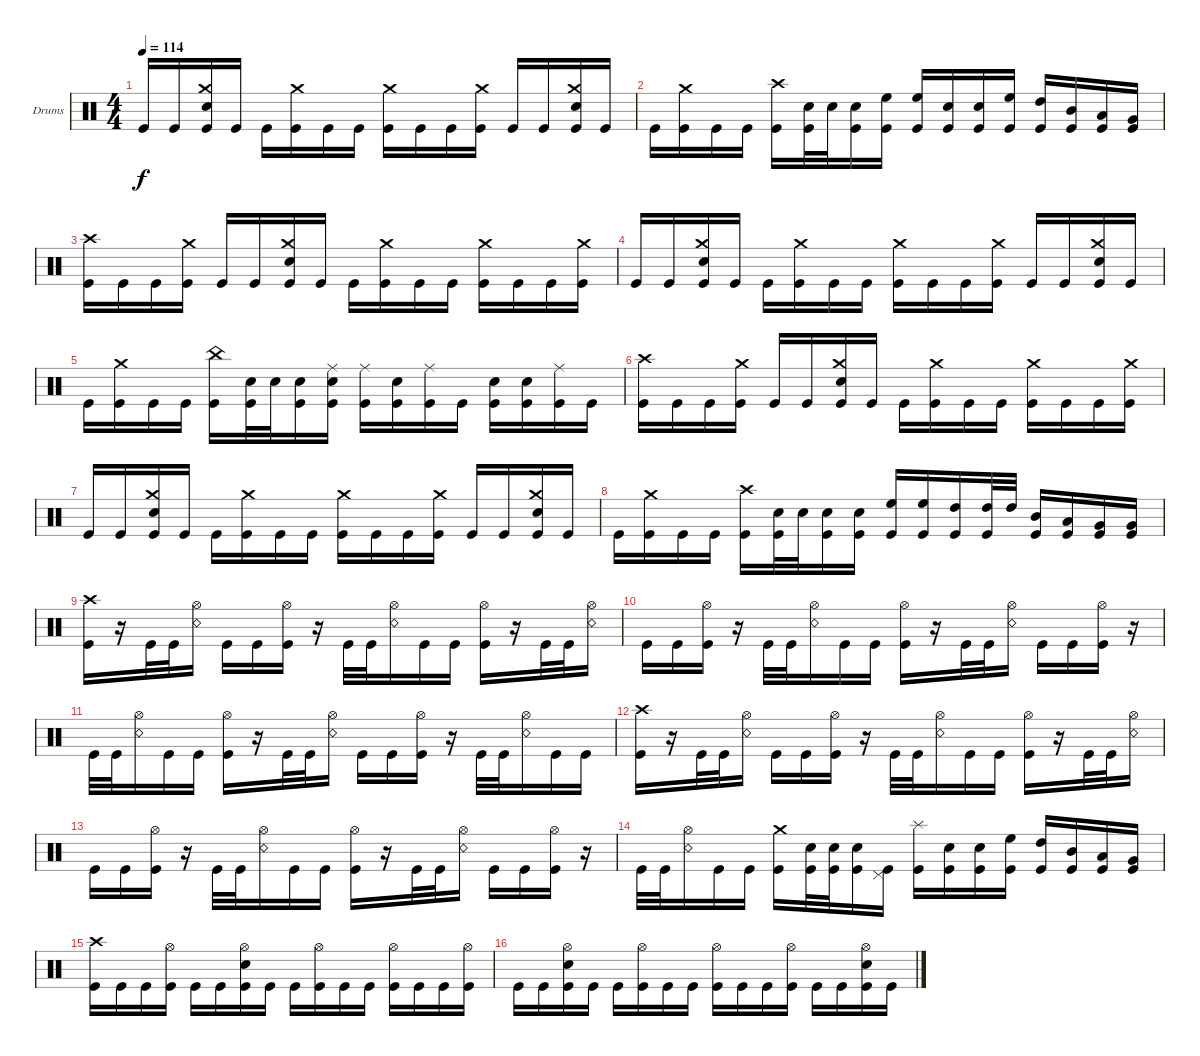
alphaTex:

\bracketExtendMode groupsimilarinstruments
\firstSystemTrackNameOrientation horizontal
\otherSystemsTrackNameOrientation horizontal
\track ("Drumkit" "Drums") {instrument percussion}
\staff {score}
\articulation defaults
\ts (4 4)
\tempo 114
\clef neutral
\ks c "Kick (hit)".16{dy f} "Kick (hit)".16
("Crash medium (hit)" "Snare (hit) 2" "Kick (hit)").16 "Kick (hit)".16 "Kick (hit)".16 ("Crash medium (hit)" "Kick (hit)").16 "Kick (hit)".16 "Kick (hit)".16 ("Crash medium (hit)" "Kick (hit)").16 "Kick (hit)".16 "Kick (hit)".16 ("Crash medium (hit)" "Kick (hit)").16 "Kick (hit)".16 "Kick (hit)".16 ("Crash medium (hit)" "Snare (hit) 2" "Kick (hit)").16 "Kick (hit)".16 |
"Kick (hit)".16 ("Crash medium (hit)" "Kick (hit)").16 "Kick (hit)".16 "Kick (hit)".16 ("Crash high (hit)" "Kick (hit)").16 ("Snare (hit) 2" "Kick (hit)").32 "Snare (hit) 2".32 ("Snare (hit) 2" "Kick (hit)").16 ("High Floor Tom (hit)" "Kick (hit)").16 ("High Floor Tom (hit)" "Kick (hit)").16 ("Snare (hit) 2" "Kick (hit)").16 ("Snare (hit) 2" "Kick (hit)").16 ("High Floor Tom (hit)" "Kick (hit)").16 ("High Tom (hit)" "Kick (hit)").16 ("Mid Tom (hit)" "Kick (hit)").16 ("Low Tom (hit)" "Kick (hit)").16 ("Very Low Tom (hit)" "Kick (hit)").16 |
("Crash high (hit)" "Kick (hit)").16 "Kick (hit)".16 "Kick (hit)".16 ("Crash medium (hit)" "Kick (hit)").16 "Kick (hit)".16 "Kick (hit)".16 ("Crash medium (hit)" "Snare (hit) 2" "Kick (hit)").16 "Kick (hit)".16 "Kick (hit)".16 ("Crash medium (hit)" "Kick (hit)").16 "Kick (hit)".16 "Kick (hit)".16 ("Crash medium (hit)" "Kick (hit)").16 "Kick (hit)".16 "Kick (hit)".16 ("Crash medium (hit)" "Kick (hit)").16 |
"Kick (hit)".16 "Kick (hit)".16 ("Crash medium (hit)" "Snare (hit) 2" "Kick (hit)").16 "Kick (hit)".16 "Kick (hit)".16 ("Crash medium (hit)" "Kick (hit)").16 "Kick (hit)".16 "Kick (hit)".16 ("Crash medium (hit)" "Kick (hit)").16 "Kick (hit)".16 "Kick (hit)".16 ("Crash medium (hit)" "Kick (hit)").16 "Kick (hit)".16 "Kick (hit)".16 ("Crash medium (hit)" "Snare (hit) 2" "Kick (hit)").16 "Kick (hit)".16 |
"Kick (hit)".16 ("Crash medium (hit)" "Kick (hit)").16 "Kick (hit)".16 "Kick (hit)".16 ("China (hit)" "Kick (hit)").16 ("Snare (hit) 2" "Kick (hit)").32 "Snare (hit) 2".32 ("Snare (hit) 2" "Kick (hit)").16 ("Ride (middle)" "Snare (hit) 2" "Kick (hit)").16 ("Ride (middle)" "Kick (hit)").16 ("Snare (hit) 2" "Kick (hit)").16 ("Ride (middle)" "Kick (hit)").16 "Kick (hit)".16 ("Snare (hit) 2" "Kick (hit)").16 ("Snare (hit) 2" "Kick (hit)").16 ("Ride (middle)" "Kick (hit)").16 "Kick (hit)".16 |
("Crash high (hit)" "Kick (hit)").16 "Kick (hit)".16 "Kick (hit)".16 ("Crash medium (hit)" "Kick (hit)").16 "Kick (hit)".16 "Kick (hit)".16 ("Crash medium (hit)" "Snare (hit) 2" "Kick (hit)").16 "Kick (hit)".16 "Kick (hit)".16 ("Crash medium (hit)" "Kick (hit)").16 "Kick (hit)".16 "Kick (hit)".16 ("Crash medium (hit)" "Kick (hit)").16 "Kick (hit)".16 "Kick (hit)".16 ("Crash medium (hit)" "Kick (hit)").16 |
"Kick (hit)".16 "Kick (hit)".16 ("Crash medium (hit)" "Snare (hit) 2" "Kick (hit)").16 "Kick (hit)".16 "Kick (hit)".16 ("Crash medium (hit)" "Kick (hit)").16 "Kick (hit)".16 "Kick (hit)".16 ("Crash medium (hit)" "Kick (hit)").16 "Kick (hit)".16 "Kick (hit)".16 ("Crash medium (hit)" "Kick (hit)").16 "Kick (hit)".16 "Kick (hit)".16 ("Crash medium (hit)" "Snare (hit) 2" "Kick (hit)").16 "Kick (hit)".16 |
"Kick (hit)".16 ("Crash medium (hit)" "Kick (hit)").16 "Kick (hit)".16 "Kick (hit)".16 ("Crash high (hit)" "Kick (hit)").16 ("Snare (hit) 2" "Kick (hit)").32 "Snare (hit) 2".32 ("Snare (hit) 2" "Kick (hit)").16 ("Snare (hit) 2" "Kick (hit)").16 ("High Floor Tom (hit)" "Kick (hit)").16 ("High Floor Tom (hit)" "Kick (hit)").16 ("High Tom (hit)" "Kick (hit)").16 ("High Tom (hit)" "Kick (hit)").32 "High Tom (hit)".32 ("Mid Tom (hit)" "Kick (hit)").16 ("Low Tom (hit)" "Kick (hit)").16 ("Very Low Tom (hit)" "Kick (hit)").16 ("Very Low Tom (hit)" "Kick (hit)").16 |
("Crash high (hit)" "Kick (hit)").16 r.16 "Kick (hit)".32 "Kick (hit)".32 ("Hi-Hat (open)" "Snare (rim shot)").16 "Kick (hit)".16 "Kick (hit)".16 ("Hi-Hat (open)" "Kick (hit)").16 r.16 "Kick (hit)".32 "Kick (hit)".32 ("Hi-Hat (open)" "Snare (rim shot)").16 "Kick (hit)".16 "Kick (hit)".16 ("Hi-Hat (open)" "Kick (hit)").16 r.16 "Kick (hit)".32 "Kick (hit)".32 ("Hi-Hat (open)" "Snare (rim shot)").16 |
"Kick (hit)".16 "Kick (hit)".16 ("Hi-Hat (open)" "Kick (hit)").16 r.16 "Kick (hit)".32 "Kick (hit)".32 ("Hi-Hat (open)" "Snare (rim shot)").16 "Kick (hit)".16 "Kick (hit)".16 ("Hi-Hat (open)" "Kick (hit)").16 r.16 "Kick (hit)".32 "Kick (hit)".32 ("Hi-Hat (open)" "Snare (rim shot)").16 "Kick (hit)".16 "Kick (hit)".16 ("Hi-Hat (open)" "Kick (hit)").16 r.16 |
"Kick (hit)".32 "Kick (hit)".32 ("Hi-Hat (open)" "Snare (rim shot)").16 "Kick (hit)".16 "Kick (hit)".16 ("Hi-Hat (open)" "Kick (hit)").16 r.16 "Kick (hit)".32 "Kick (hit)".32 ("Hi-Hat (open)" "Snare (rim shot)").16 "Kick (hit)".16 "Kick (hit)".16 ("Hi-Hat (open)" "Kick (hit)").16 r.16 "Kick (hit)".32 "Kick (hit)".32 ("Hi-Hat (open)" "Snare (rim shot)").16 "Kick (hit)".16 "Kick (hit)".16 |
("Crash high (hit)" "Kick (hit)").16 r.16 "Kick (hit)".32 "Kick (hit)".32 ("Hi-Hat (open)" "Snare (rim shot)").16 "Kick (hit)".16 "Kick (hit)".16 ("Hi-Hat (open)" "Kick (hit)").16 r.16 "Kick (hit)".32 "Kick (hit)".32 ("Hi-Hat (open)" "Snare (rim shot)").16 "Kick (hit)".16 "Kick (hit)".16 ("Hi-Hat (open)" "Kick (hit)").16 r.16 "Kick (hit)".32 "Kick (hit)".32 ("Hi-Hat (open)" "Snare (rim shot)").16 |
"Kick (hit)".16 "Kick (hit)".16 ("Hi-Hat (open)" "Kick (hit)").16 r.16 "Kick (hit)".32 "Kick (hit)".32 ("Hi-Hat (open)" "Snare (rim shot)").16 "Kick (hit)".16 "Kick (hit)".16 ("Hi-Hat (open)" "Kick (hit)").16 r.16 "Kick (hit)".32 "Kick (hit)".32 ("Hi-Hat (open)" "Snare (rim shot)").16 "Kick (hit)".16 "Kick (hit)".16 ("Hi-Hat (open)" "Kick (hit)").16 r.16 |
"Kick (hit)".32 "Kick (hit)".32 ("Hi-Hat (open)" "Snare (rim shot)").16 "Kick (hit)".16 "Kick (hit)".16 ("Crash medium (hit)" "Kick (hit)").16 ("Snare (hit) 2" "Kick (hit)").32 ("Snare (hit) 2" "Kick (hit)").32 ("Snare (hit) 2" "Kick (hit)").16 ("Pedal Hi-Hat (hit)" "Kick (hit)").16 ("Splash (hit)" "Kick (hit)").16 ("Snare (hit) 2" "Kick (hit)").16 ("Snare (hit) 2" "Kick (hit)").16 ("High Floor Tom (hit)" "Kick (hit)").16 ("High Tom (hit)" "Kick (hit)").16 ("Mid Tom (hit)" "Kick (hit)").16 ("Low Tom (hit)" "Kick (hit)").16 ("Very Low Tom (hit)" "Kick (hit)").16 |
("Crash high (hit)" "Kick (hit)").16 "Kick (hit)".16 "Kick (hit)".16 ("Hi-Hat (open)" "Kick (hit)").16 "Kick (hit)".16 "Kick (hit)".16 ("Hi-Hat (open)" "Snare (hit) 2" "Kick (hit)").16 "Kick (hit)".16 "Kick (hit)".16 ("Hi-Hat (open)" "Kick (hit)").16 "Kick (hit)".16 "Kick (hit)".16 ("Hi-Hat (open)" "Kick (hit)").16 "Kick (hit)".16 "Kick (hit)".16 ("Hi-Hat (open)" "Kick (hit)").16 |
"Kick (hit)".16 "Kick (hit)".16 ("Hi-Hat (open)" "Snare (hit) 2" "Kick (hit)").16 "Kick (hit)".16 "Kick (hit)".16 ("Hi-Hat (open)" "Kick (hit)").16 "Kick (hit)".16 "Kick (hit)".16 ("Hi-Hat (open)" "Kick (hit)").16 "Kick (hit)".16 "Kick (hit)".16 ("Hi-Hat (open)" "Kick (hit)").16 "Kick (hit)".16 "Kick (hit)".16 ("Hi-Hat (open)" "Snare (hit) 2" "Kick (hit)").16 "Kick (hit)".16
